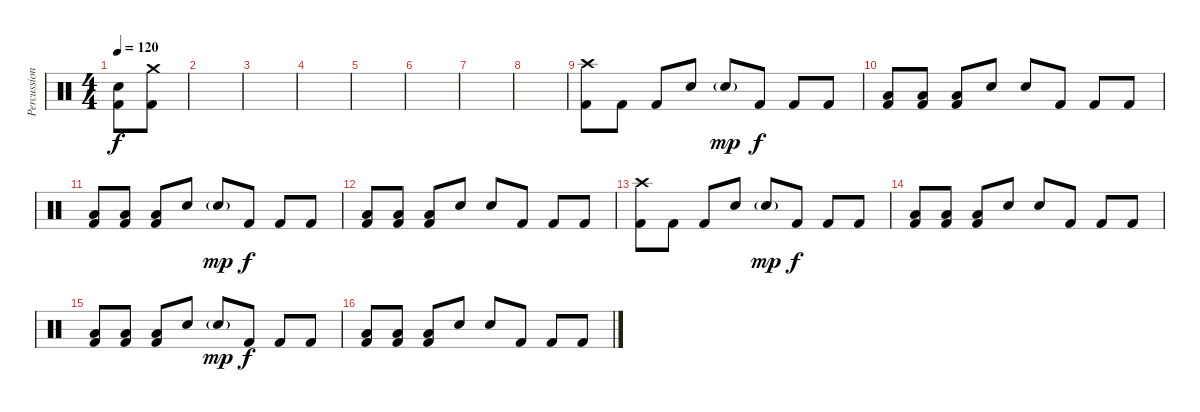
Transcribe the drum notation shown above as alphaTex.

\track ("Percussion" "Percussion") {instrument percussion}
\staff {score}
\articulation defaults
\ts (4 4)
\tempo 120
\clef neutral
\ks c
("Kick (hit) 2" "Electric Snare (hit)").8{dy f} ("Kick (hit) 2" "Crash medium (hit)").8 |
|
|
|
|
|
|
|
("Kick (hit) 2" "Crash high (hit)").8 "Kick (hit) 2".8 "Kick (hit) 2".8 "Electric Snare (hit)".8 "Electric Snare (hit)"{g}.8{dy mp} "Kick (hit) 2".8{dy f} "Kick (hit) 2".8 "Kick (hit) 2".8 |
("Kick (hit) 2" "Low Floor Tom (hit)").8 ("Kick (hit) 2" "Low Floor Tom (hit)").8 ("Kick (hit) 2" "Low Floor Tom (hit)").8 "Electric Snare (hit)".8 "Electric Snare (hit)".8 "Kick (hit) 2".8 "Kick (hit) 2".8 "Kick (hit) 2".8 |
("Kick (hit) 2" "Low Floor Tom (hit)").8 ("Kick (hit) 2" "Low Floor Tom (hit)").8 ("Kick (hit) 2" "Low Floor Tom (hit)").8 "Electric Snare (hit)".8 "Electric Snare (hit)"{g}.8{dy mp} "Kick (hit) 2".8{dy f} "Kick (hit) 2".8 "Kick (hit) 2".8 |
("Kick (hit) 2" "Low Floor Tom (hit)").8 ("Kick (hit) 2" "Low Floor Tom (hit)").8 ("Kick (hit) 2" "Low Floor Tom (hit)").8 "Electric Snare (hit)".8 "Electric Snare (hit)".8 "Kick (hit) 2".8 "Kick (hit) 2".8 "Kick (hit) 2".8 |
("Kick (hit) 2" "Crash high (hit)").8 "Kick (hit) 2".8 "Kick (hit) 2".8 "Electric Snare (hit)".8 "Electric Snare (hit)"{g}.8{dy mp} "Kick (hit) 2".8{dy f} "Kick (hit) 2".8 "Kick (hit) 2".8 |
("Kick (hit) 2" "Low Floor Tom (hit)").8 ("Kick (hit) 2" "Low Floor Tom (hit)").8 ("Kick (hit) 2" "Low Floor Tom (hit)").8 "Electric Snare (hit)".8 "Electric Snare (hit)".8 "Kick (hit) 2".8 "Kick (hit) 2".8 "Kick (hit) 2".8 |
("Kick (hit) 2" "Low Floor Tom (hit)").8 ("Kick (hit) 2" "Low Floor Tom (hit)").8 ("Kick (hit) 2" "Low Floor Tom (hit)").8 "Electric Snare (hit)".8 "Electric Snare (hit)"{g}.8{dy mp} "Kick (hit) 2".8{dy f} "Kick (hit) 2".8 "Kick (hit) 2".8 |
("Kick (hit) 2" "Low Floor Tom (hit)").8 ("Kick (hit) 2" "Low Floor Tom (hit)").8 ("Kick (hit) 2" "Low Floor Tom (hit)").8 "Electric Snare (hit)".8 "Electric Snare (hit)".8 "Kick (hit) 2".8 "Kick (hit) 2".8 "Kick (hit) 2".8
